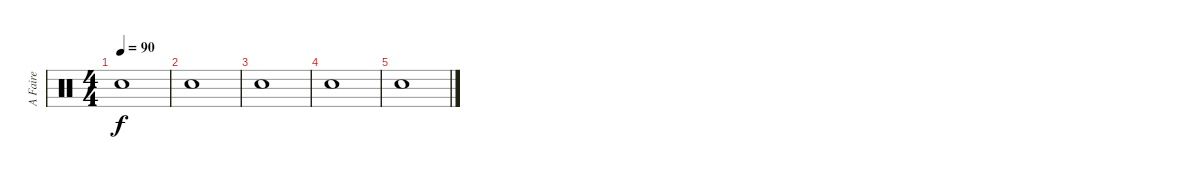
\track ("A Faire" "A Faire") {instrument percussion}
\staff {score}
\articulation defaults
\ts (4 4)
\tempo 90
\clef neutral
\ks c "Snare (hit)"{x}.1{dy f}
|
"Snare (hit)"{x}.1 |
"Snare (hit)"{x}.1 |
"Snare (hit)"{x}.1 |
"Snare (hit)"{x}.1
